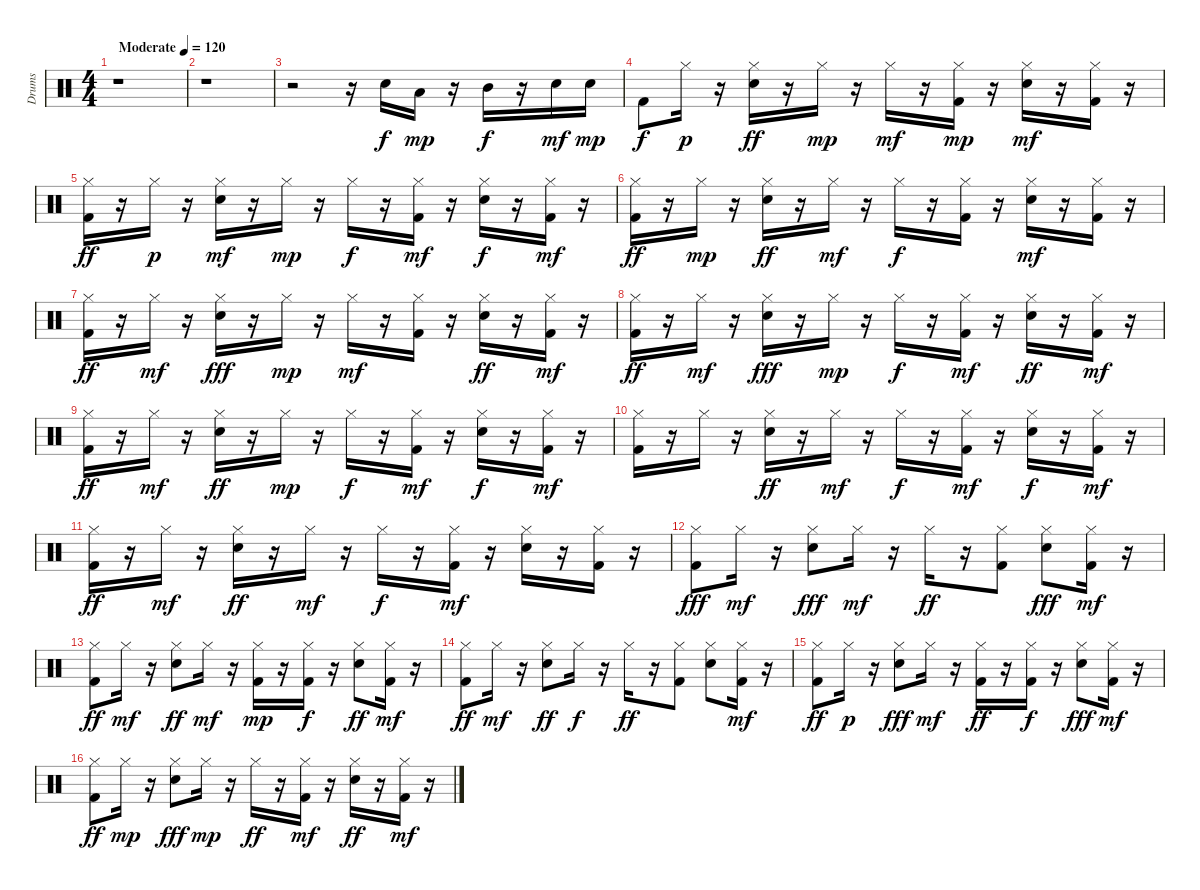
\track ("Drums" "Drums") {instrument percussion}
\staff {score}
\articulation defaults
\ts (4 4)
\tempo (120 "Moderate")
\clef neutral
\ks c
r.1{dy f} |
r.1 |
r.2 r.16 "Electric Snare (hit)".16 "Low Tom (hit)".16{dy mp} r.16 "Mid Tom (hit)".16{dy f} r.16 "Electric Snare (hit)".16{dy mf} "Electric Snare (hit)".16{dy mp} |
"Kick (hit) 2".8{dy f} "Hi-Hat (closed)".16{dy p} r.16 ("Hi-Hat (closed)" "Electric Snare (hit)").16{dy ff} r.16 "Hi-Hat (closed)".16{dy mp} r.16 "Hi-Hat (closed)".16{dy mf} r.16 ("Kick (hit) 2" "Hi-Hat (closed)").16{dy mp} r.16 ("Electric Snare (hit)" "Hi-Hat (closed)").16{dy mf} r.16 ("Hi-Hat (closed)" "Kick (hit) 2").16 r.16 |
("Hi-Hat (closed)" "Kick (hit) 2").16{dy ff} r.16 "Hi-Hat (closed)".16{dy p} r.16 ("Electric Snare (hit)" "Hi-Hat (closed)").16{dy mf} r.16 "Hi-Hat (closed)".16{dy mp} r.16 "Hi-Hat (closed)".16{dy f} r.16 ("Kick (hit) 2" "Hi-Hat (closed)").16{dy mf} r.16 ("Electric Snare (hit)" "Hi-Hat (closed)").16{dy f} r.16 ("Kick (hit) 2" "Hi-Hat (closed)").16{dy mf} r.16 |
("Kick (hit) 2" "Hi-Hat (closed)").16{dy ff} r.16 "Hi-Hat (closed)".16{dy mp} r.16 ("Hi-Hat (closed)" "Electric Snare (hit)").16{dy ff} r.16 "Hi-Hat (closed)".16{dy mf} r.16 "Hi-Hat (closed)".16{dy f} r.16 ("Kick (hit) 2" "Hi-Hat (closed)").16 r.16 ("Electric Snare (hit)" "Hi-Hat (closed)").16{dy mf} r.16 ("Kick (hit) 2" "Hi-Hat (closed)").16 r.16 |
("Hi-Hat (closed)" "Kick (hit) 2").16{dy ff} r.16 "Hi-Hat (closed)".16{dy mf} r.16 ("Electric Snare (hit)" "Hi-Hat (closed)").16{dy fff} r.16 "Hi-Hat (closed)".16{dy mp} r.16 "Hi-Hat (closed)".16{dy mf} r.16 ("Hi-Hat (closed)" "Kick (hit) 2").16 r.16 ("Electric Snare (hit)" "Hi-Hat (closed)").16{dy ff} r.16 ("Hi-Hat (closed)" "Kick (hit) 2").16{dy mf} r.16 |
("Hi-Hat (closed)" "Kick (hit) 2").16{dy ff} r.16 "Hi-Hat (closed)".16{dy mf} r.16 ("Hi-Hat (closed)" "Electric Snare (hit)").16{dy fff} r.16 "Hi-Hat (closed)".16{dy mp} r.16 "Hi-Hat (closed)".16{dy f} r.16 ("Kick (hit) 2" "Hi-Hat (closed)").16{dy mf} r.16 ("Hi-Hat (closed)" "Electric Snare (hit)").16{dy ff} r.16 ("Hi-Hat (closed)" "Kick (hit) 2").16{dy mf} r.16 |
("Hi-Hat (closed)" "Kick (hit) 2").16{dy ff} r.16 "Hi-Hat (closed)".16{dy mf} r.16 ("Electric Snare (hit)" "Hi-Hat (closed)").16{dy ff} r.16 "Hi-Hat (closed)".16{dy mp} r.16 "Hi-Hat (closed)".16{dy f} r.16 ("Kick (hit) 2" "Hi-Hat (closed)").16{dy mf} r.16 ("Hi-Hat (closed)" "Electric Snare (hit)").16{dy f} r.16 ("Hi-Hat (closed)" "Kick (hit) 2").16{dy mf} r.16 |
("Hi-Hat (closed)" "Kick (hit) 2").16 r.16 "Hi-Hat (closed)".16 r.16 ("Electric Snare (hit)" "Hi-Hat (closed)").16{dy ff} r.16 "Hi-Hat (closed)".16{dy mf} r.16 "Hi-Hat (closed)".16{dy f} r.16 ("Kick (hit) 2" "Hi-Hat (closed)").16{dy mf} r.16 ("Electric Snare (hit)" "Hi-Hat (closed)").16{dy f} r.16 ("Hi-Hat (closed)" "Kick (hit) 2").16{dy mf} r.16 |
("Hi-Hat (closed)" "Kick (hit) 2").16{dy ff} r.16 "Hi-Hat (closed)".16{dy mf} r.16 ("Electric Snare (hit)" "Hi-Hat (closed)").16{dy ff} r.16 "Hi-Hat (closed)".16{dy mf} r.16 "Hi-Hat (closed)".16{dy f} r.16 ("Kick (hit) 2" "Hi-Hat (closed)").16{dy mf} r.16 ("Hi-Hat (closed)" "Electric Snare (hit)").16 r.16 ("Kick (hit) 2" "Hi-Hat (closed)").16 r.16 |
("Kick (hit) 2" "Hi-Hat (closed)").8{dy fff} "Hi-Hat (closed)".16{dy mf} r.16 ("Electric Snare (hit)" "Hi-Hat (closed)").8{dy fff} "Hi-Hat (closed)".16{dy mf} r.16 "Hi-Hat (closed)".16{dy ff} r.16 ("Hi-Hat (closed)" "Kick (hit) 2").8 ("Electric Snare (hit)" "Hi-Hat (closed)").8{dy fff} ("Kick (hit) 2" "Hi-Hat (closed)").16{dy mf} r.16 |
("Kick (hit) 2" "Hi-Hat (closed)").8{dy ff} "Hi-Hat (closed)".16{dy mf} r.16 ("Electric Snare (hit)" "Hi-Hat (closed)").8{dy ff} "Hi-Hat (closed)".16{dy mf} r.16 ("Kick (hit) 2" "Hi-Hat (closed)").16{dy mp} r.16 ("Hi-Hat (closed)" "Kick (hit) 2").16{dy f} r.16 ("Hi-Hat (closed)" "Electric Snare (hit)").8{dy ff} ("Kick (hit) 2" "Hi-Hat (closed)").16{dy mf} r.16 |
("Hi-Hat (closed)" "Kick (hit) 2").8{dy ff} "Hi-Hat (closed)".16{dy mf} r.16 ("Hi-Hat (closed)" "Electric Snare (hit)").8{dy ff} "Hi-Hat (closed)".16{dy f} r.16 "Hi-Hat (closed)".16{dy ff} r.16 ("Kick (hit) 2" "Hi-Hat (closed)").8 ("Electric Snare (hit)" "Hi-Hat (closed)").8 ("Kick (hit) 2" "Hi-Hat (closed)").16{dy mf} r.16 |
("Hi-Hat (closed)" "Kick (hit) 2").8{dy ff} "Hi-Hat (closed)".16{dy p} r.16 ("Hi-Hat (closed)" "Electric Snare (hit)").8{dy fff} "Hi-Hat (closed)".16{dy mf} r.16 ("Kick (hit) 2" "Hi-Hat (closed)").16{dy ff} r.16 ("Hi-Hat (closed)" "Kick (hit) 2").16{dy f} r.16 ("Electric Snare (hit)" "Hi-Hat (closed)").8{dy fff} ("Hi-Hat (closed)" "Kick (hit) 2").16{dy mf} r.16 |
("Hi-Hat (closed)" "Kick (hit) 2").8{dy ff} "Hi-Hat (closed)".16{dy mp} r.16 ("Hi-Hat (closed)" "Electric Snare (hit)").8{dy fff} "Hi-Hat (closed)".16{dy mp} r.16 "Hi-Hat (closed)".16{dy ff} r.16 ("Kick (hit) 2" "Hi-Hat (closed)").16{dy mf} r.16 ("Hi-Hat (closed)" "Electric Snare (hit)").16{dy ff} r.16 ("Hi-Hat (closed)" "Kick (hit) 2").16{dy mf} r.16
